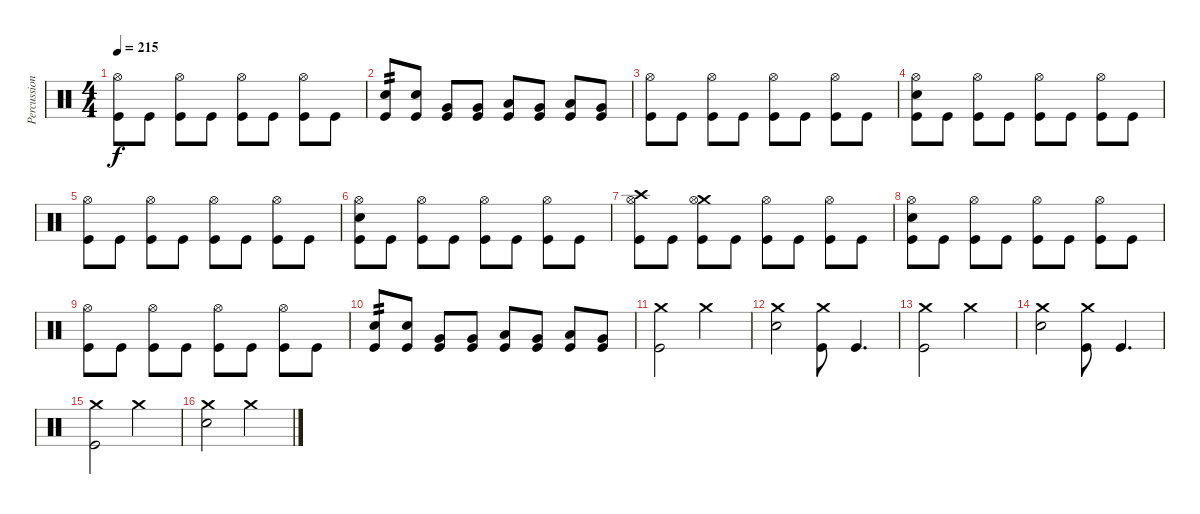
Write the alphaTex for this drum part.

\track ("Percussion" "Percussion") {instrument percussion}
\staff {score}
\articulation defaults
\ts (4 4)
\tempo 215
\clef neutral
\ks c
("Hi-Hat (open)" "Kick (hit)").8{dy f} "Kick (hit)".8 ("Hi-Hat (open)" "Kick (hit)").8 "Kick (hit)".8 ("Hi-Hat (open)" "Kick (hit)").8 "Kick (hit)".8 ("Hi-Hat (open)" "Kick (hit)").8 "Kick (hit)".8 |
("Electric Snare (hit)" "Kick (hit)").8{tp 2} ("Electric Snare (hit)" "Kick (hit)").8 ("Very Low Tom (hit)" "Kick (hit)").8 ("Very Low Tom (hit)" "Kick (hit)").8 ("Low Floor Tom (hit)" "Kick (hit)").8 ("Very Low Tom (hit)" "Kick (hit)").8 ("Low Floor Tom (hit)" "Kick (hit)").8 ("Very Low Tom (hit)" "Kick (hit)").8 |
("Hi-Hat (open)" "Kick (hit)").8 "Kick (hit)".8 ("Hi-Hat (open)" "Kick (hit)").8 "Kick (hit)".8 ("Hi-Hat (open)" "Kick (hit)").8 "Kick (hit)".8 ("Hi-Hat (open)" "Kick (hit)").8 "Kick (hit)".8 |
("Hi-Hat (open)" "Electric Snare (hit)" "Kick (hit)").8 "Kick (hit)".8 ("Hi-Hat (open)" "Kick (hit)").8 "Kick (hit)".8 ("Hi-Hat (open)" "Kick (hit)").8 "Kick (hit)".8 ("Hi-Hat (open)" "Kick (hit)").8 "Kick (hit)".8 |
("Hi-Hat (open)" "Kick (hit)").8 "Kick (hit)".8 ("Hi-Hat (open)" "Kick (hit)").8 "Kick (hit)".8 ("Hi-Hat (open)" "Kick (hit)").8 "Kick (hit)".8 ("Hi-Hat (open)" "Kick (hit)").8 "Kick (hit)".8 |
("Hi-Hat (open)" "Electric Snare (hit)" "Kick (hit)").8 "Kick (hit)".8 ("Hi-Hat (open)" "Kick (hit)").8 "Kick (hit)".8 ("Hi-Hat (open)" "Kick (hit)").8 "Kick (hit)".8 ("Hi-Hat (open)" "Kick (hit)").8 "Kick (hit)".8 |
("Crash high (hit)" "Hi-Hat (open)" "Kick (hit)").8 "Kick (hit)".8 ("Crash medium (hit)" "Hi-Hat (open)" "Kick (hit)").8 "Kick (hit)".8 ("Hi-Hat (open)" "Kick (hit)").8 "Kick (hit)".8 ("Hi-Hat (open)" "Kick (hit)").8 "Kick (hit)".8 |
("Hi-Hat (open)" "Electric Snare (hit)" "Kick (hit)").8 "Kick (hit)".8 ("Hi-Hat (open)" "Kick (hit)").8 "Kick (hit)".8 ("Hi-Hat (open)" "Kick (hit)").8 "Kick (hit)".8 ("Hi-Hat (open)" "Kick (hit)").8 "Kick (hit)".8 |
("Hi-Hat (open)" "Kick (hit)").8 "Kick (hit)".8 ("Hi-Hat (open)" "Kick (hit)").8 "Kick (hit)".8 ("Hi-Hat (open)" "Kick (hit)").8 "Kick (hit)".8 ("Hi-Hat (open)" "Kick (hit)").8 "Kick (hit)".8 |
("Electric Snare (hit)" "Kick (hit)").8{tp 2} ("Electric Snare (hit)" "Kick (hit)").8 ("Very Low Tom (hit)" "Kick (hit)").8 ("Very Low Tom (hit)" "Kick (hit)").8 ("Low Floor Tom (hit)" "Kick (hit)").8 ("Very Low Tom (hit)" "Kick (hit)").8 ("Low Floor Tom (hit)" "Kick (hit)").8 ("Very Low Tom (hit)" "Kick (hit)").8 |
("Crash medium (hit)" "Kick (hit)").2 "Crash medium (hit)".2 |
("Crash medium (hit)" "Electric Snare (hit)").2 ("Crash medium (hit)" "Kick (hit)").8 "Kick (hit)".4{d} |
("Crash medium (hit)" "Kick (hit)").2 "Crash medium (hit)".2 |
("Crash medium (hit)" "Electric Snare (hit)").2 ("Crash medium (hit)" "Kick (hit)").8 "Kick (hit)".4{d} |
("Crash medium (hit)" "Kick (hit)").2 "Crash medium (hit)".2 |
("Crash medium (hit)" "Electric Snare (hit)").2 "Crash medium (hit)".2
